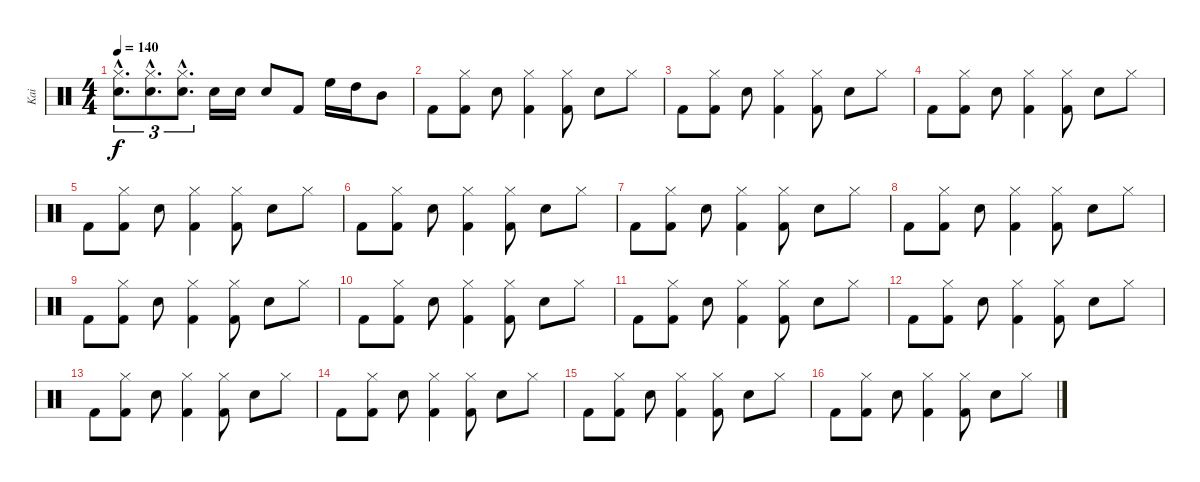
\track ("Kai" "Kai") {instrument percussion}
\staff {score}
\articulation defaults
\ts (4 4)
\tempo 140
\clef neutral
\ks c
("Electric Snare (hit)"{hac} "Hi-Hat (closed)"{hac}).8{d tu (3 2) dy f} ("Electric Snare (hit)"{hac} "Hi-Hat (closed)"{hac}).8{d tu (3 2)} ("Electric Snare (hit)"{hac} "Hi-Hat (closed)"{hac}).8{d tu (3 2)} "Electric Snare (hit)".16 "Electric Snare (hit)".16 "Electric Snare (hit)".8 "Kick (hit) 2".8 "High Floor Tom (hit)".16 "High Tom (hit)".16 "Mid Tom (hit)".8 |
"Kick (hit) 2".8 ("Kick (hit) 2" "Hi-Hat (closed)").8 "Electric Snare (hit)".8 ("Kick (hit) 2" "Hi-Hat (closed)").4 ("Kick (hit) 2" "Hi-Hat (closed)").8 "Electric Snare (hit)".8 "Hi-Hat (closed)".8 |
"Kick (hit) 2".8 ("Kick (hit) 2" "Hi-Hat (closed)").8 "Electric Snare (hit)".8 ("Kick (hit) 2" "Hi-Hat (closed)").4 ("Kick (hit) 2" "Hi-Hat (closed)").8 "Electric Snare (hit)".8 "Hi-Hat (closed)".8 |
"Kick (hit) 2".8 ("Kick (hit) 2" "Hi-Hat (closed)").8 "Electric Snare (hit)".8 ("Kick (hit) 2" "Hi-Hat (closed)").4 ("Kick (hit) 2" "Hi-Hat (closed)").8 "Electric Snare (hit)".8 "Hi-Hat (closed)".8 |
"Kick (hit) 2".8 ("Kick (hit) 2" "Hi-Hat (closed)").8 "Electric Snare (hit)".8 ("Kick (hit) 2" "Hi-Hat (closed)").4 ("Kick (hit) 2" "Hi-Hat (closed)").8 "Electric Snare (hit)".8 "Hi-Hat (closed)".8 |
"Kick (hit) 2".8 ("Kick (hit) 2" "Hi-Hat (closed)").8 "Electric Snare (hit)".8 ("Kick (hit) 2" "Hi-Hat (closed)").4 ("Kick (hit) 2" "Hi-Hat (closed)").8 "Electric Snare (hit)".8 "Hi-Hat (closed)".8 |
"Kick (hit) 2".8 ("Kick (hit) 2" "Hi-Hat (closed)").8 "Electric Snare (hit)".8 ("Kick (hit) 2" "Hi-Hat (closed)").4 ("Kick (hit) 2" "Hi-Hat (closed)").8 "Electric Snare (hit)".8 "Hi-Hat (closed)".8 |
"Kick (hit) 2".8 ("Kick (hit) 2" "Hi-Hat (closed)").8 "Electric Snare (hit)".8 ("Kick (hit) 2" "Hi-Hat (closed)").4 ("Kick (hit) 2" "Hi-Hat (closed)").8 "Electric Snare (hit)".8 "Hi-Hat (closed)".8 |
"Kick (hit) 2".8 ("Kick (hit) 2" "Hi-Hat (closed)").8 "Electric Snare (hit)".8 ("Kick (hit) 2" "Hi-Hat (closed)").4 ("Kick (hit) 2" "Hi-Hat (closed)").8 "Electric Snare (hit)".8 "Hi-Hat (closed)".8 |
"Kick (hit) 2".8 ("Kick (hit) 2" "Hi-Hat (closed)").8 "Electric Snare (hit)".8 ("Kick (hit) 2" "Hi-Hat (closed)").4 ("Kick (hit) 2" "Hi-Hat (closed)").8 "Electric Snare (hit)".8 "Hi-Hat (closed)".8 |
"Kick (hit) 2".8 ("Kick (hit) 2" "Hi-Hat (closed)").8 "Electric Snare (hit)".8 ("Kick (hit) 2" "Hi-Hat (closed)").4 ("Kick (hit) 2" "Hi-Hat (closed)").8 "Electric Snare (hit)".8 "Hi-Hat (closed)".8 |
"Kick (hit) 2".8 ("Kick (hit) 2" "Hi-Hat (closed)").8 "Electric Snare (hit)".8 ("Kick (hit) 2" "Hi-Hat (closed)").4 ("Kick (hit) 2" "Hi-Hat (closed)").8 "Electric Snare (hit)".8 "Hi-Hat (closed)".8 |
"Kick (hit) 2".8 ("Kick (hit) 2" "Hi-Hat (closed)").8 "Electric Snare (hit)".8 ("Kick (hit) 2" "Hi-Hat (closed)").4 ("Kick (hit) 2" "Hi-Hat (closed)").8 "Electric Snare (hit)".8 "Hi-Hat (closed)".8 |
"Kick (hit) 2".8 ("Kick (hit) 2" "Hi-Hat (closed)").8 "Electric Snare (hit)".8 ("Kick (hit) 2" "Hi-Hat (closed)").4 ("Kick (hit) 2" "Hi-Hat (closed)").8 "Electric Snare (hit)".8 "Hi-Hat (closed)".8 |
"Kick (hit) 2".8 ("Kick (hit) 2" "Hi-Hat (closed)").8 "Electric Snare (hit)".8 ("Kick (hit) 2" "Hi-Hat (closed)").4 ("Kick (hit) 2" "Hi-Hat (closed)").8 "Electric Snare (hit)".8 "Hi-Hat (closed)".8 |
"Kick (hit) 2".8 ("Kick (hit) 2" "Hi-Hat (closed)").8 "Electric Snare (hit)".8 ("Kick (hit) 2" "Hi-Hat (closed)").4 ("Kick (hit) 2" "Hi-Hat (closed)").8 "Electric Snare (hit)".8 "Hi-Hat (closed)".8
